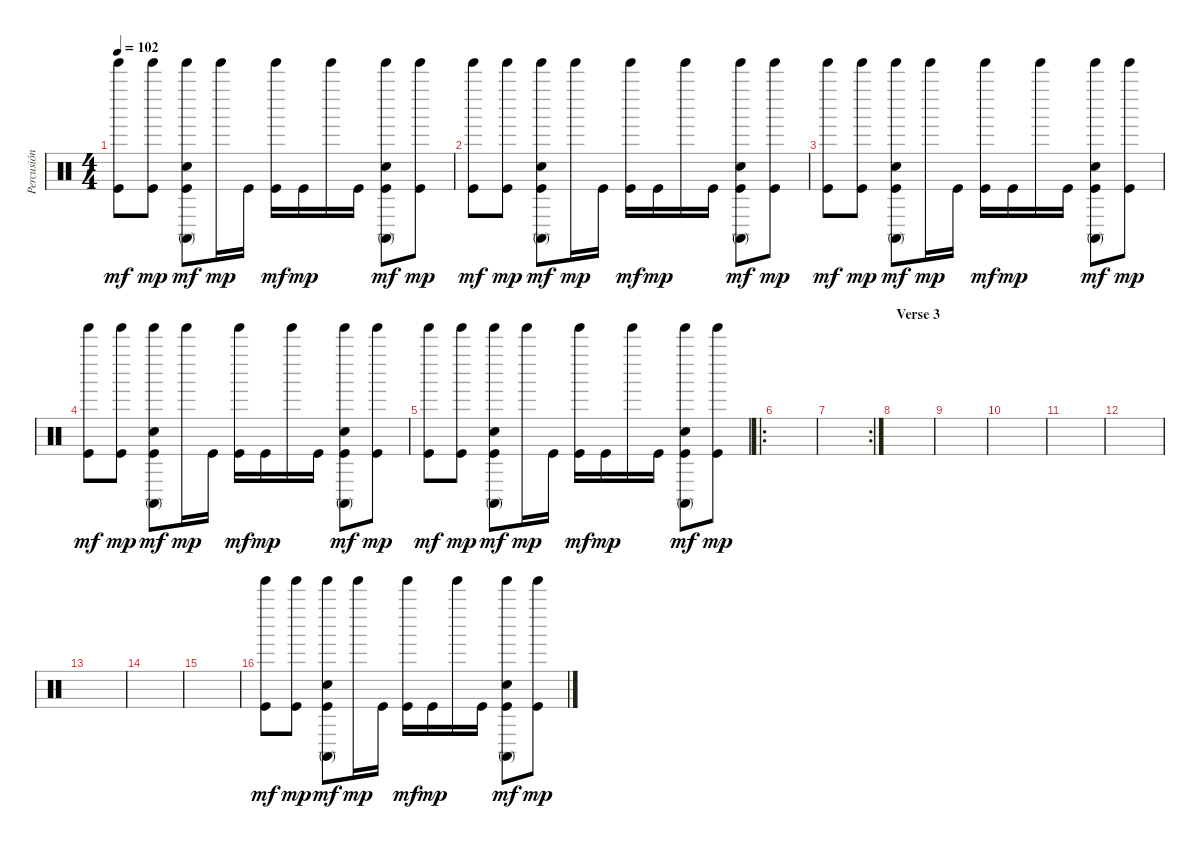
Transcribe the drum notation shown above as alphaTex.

\track ("Percusión" "Percusión") {instrument percussion}
\staff {score}
\articulation defaults
\ts (4 4)
\tempo 102
\clef neutral
\ks c
("Kick (hit)" "Tinkle Bell (hit)").8{dy mf} ("Kick (hit)" "Tinkle Bell (hit)").8{dy mp} ("Kick (hit)" "Snare (hit) 2" "Conga high (mute)" "Tinkle Bell (hit)").8{dy mf} "Tinkle Bell (hit)".16{dy mp} "Kick (hit)".16 ("Kick (hit)" "Tinkle Bell (hit)").16{dy mf} "Kick (hit)".16{dy mp} "Tinkle Bell (hit)".16 "Kick (hit)".16 ("Kick (hit)" "Snare (hit) 2" "Conga high (mute)" "Tinkle Bell (hit)").8{dy mf} ("Kick (hit)" "Tinkle Bell (hit)").8{dy mp} |
("Kick (hit)" "Tinkle Bell (hit)").8{dy mf} ("Kick (hit)" "Tinkle Bell (hit)").8{dy mp} ("Kick (hit)" "Snare (hit) 2" "Conga high (mute)" "Tinkle Bell (hit)").8{dy mf} "Tinkle Bell (hit)".16{dy mp} "Kick (hit)".16 ("Kick (hit)" "Tinkle Bell (hit)").16{dy mf} "Kick (hit)".16{dy mp} "Tinkle Bell (hit)".16 "Kick (hit)".16 ("Kick (hit)" "Snare (hit) 2" "Conga high (mute)" "Tinkle Bell (hit)").8{dy mf} ("Kick (hit)" "Tinkle Bell (hit)").8{dy mp} |
("Kick (hit)" "Tinkle Bell (hit)").8{dy mf} ("Kick (hit)" "Tinkle Bell (hit)").8{dy mp} ("Kick (hit)" "Snare (hit) 2" "Conga high (mute)" "Tinkle Bell (hit)").8{dy mf} "Tinkle Bell (hit)".16{dy mp} "Kick (hit)".16 ("Kick (hit)" "Tinkle Bell (hit)").16{dy mf} "Kick (hit)".16{dy mp} "Tinkle Bell (hit)".16 "Kick (hit)".16 ("Kick (hit)" "Snare (hit) 2" "Conga high (mute)" "Tinkle Bell (hit)").8{dy mf} ("Kick (hit)" "Tinkle Bell (hit)").8{dy mp} |
("Kick (hit)" "Tinkle Bell (hit)").8{dy mf} ("Kick (hit)" "Tinkle Bell (hit)").8{dy mp} ("Kick (hit)" "Snare (hit) 2" "Conga high (mute)" "Tinkle Bell (hit)").8{dy mf} "Tinkle Bell (hit)".16{dy mp} "Kick (hit)".16 ("Kick (hit)" "Tinkle Bell (hit)").16{dy mf} "Kick (hit)".16{dy mp} "Tinkle Bell (hit)".16 "Kick (hit)".16 ("Kick (hit)" "Snare (hit) 2" "Conga high (mute)" "Tinkle Bell (hit)").8{dy mf} ("Kick (hit)" "Tinkle Bell (hit)").8{dy mp} |
("Kick (hit)" "Tinkle Bell (hit)").8{dy mf} ("Kick (hit)" "Tinkle Bell (hit)").8{dy mp} ("Kick (hit)" "Snare (hit) 2" "Conga high (mute)" "Tinkle Bell (hit)").8{dy mf} "Tinkle Bell (hit)".16{dy mp} "Kick (hit)".16 ("Kick (hit)" "Tinkle Bell (hit)").16{dy mf} "Kick (hit)".16{dy mp} "Tinkle Bell (hit)".16 "Kick (hit)".16 ("Kick (hit)" "Snare (hit) 2" "Conga high (mute)" "Tinkle Bell (hit)").8{dy mf} ("Kick (hit)" "Tinkle Bell (hit)").8{dy mp} |
\ro
|
\rc 2
|
\section ("" "Verse 3")
|
|
|
|
|
|
|
|
("Kick (hit)" "Tinkle Bell (hit)").8{dy mf} ("Kick (hit)" "Tinkle Bell (hit)").8{dy mp} ("Kick (hit)" "Snare (hit) 2" "Conga high (mute)" "Tinkle Bell (hit)").8{dy mf} "Tinkle Bell (hit)".16{dy mp} "Kick (hit)".16 ("Kick (hit)" "Tinkle Bell (hit)").16{dy mf} "Kick (hit)".16{dy mp} "Tinkle Bell (hit)".16 "Kick (hit)".16 ("Kick (hit)" "Snare (hit) 2" "Conga high (mute)" "Tinkle Bell (hit)").8{dy mf} ("Kick (hit)" "Tinkle Bell (hit)").8{dy mp}
